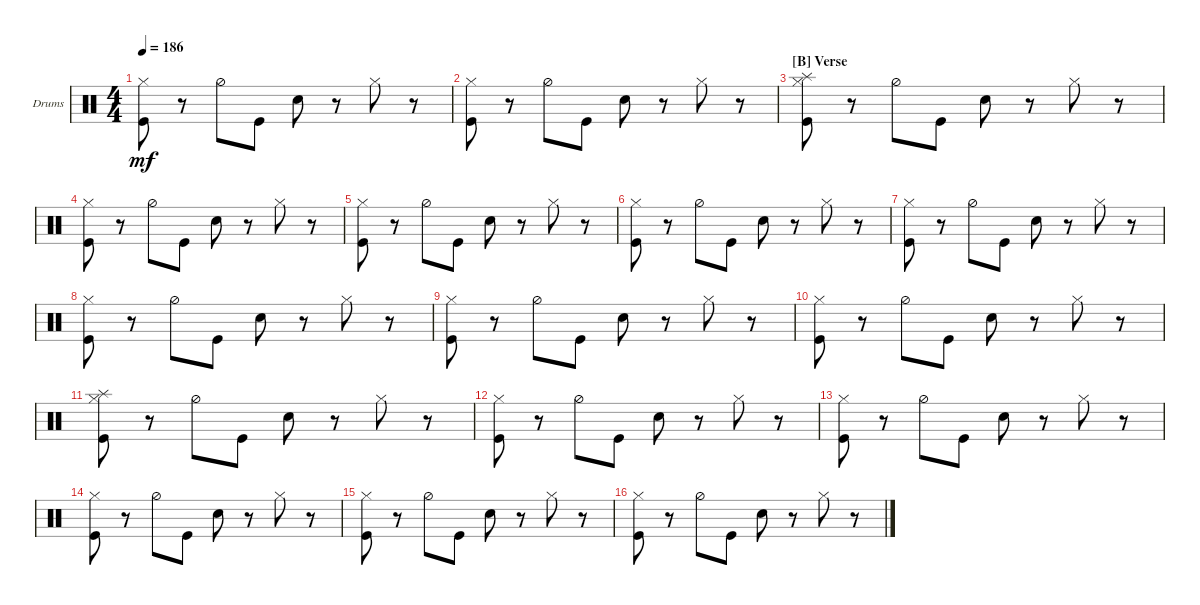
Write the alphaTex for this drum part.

\defaultSystemsLayout 4
\bracketExtendMode groupsimilarinstruments
\firstSystemTrackNameOrientation horizontal
\otherSystemsTrackNameOrientation horizontal
\track ("Drumkit" "Drums") {instrument percussion}
\staff {score}
\articulation defaults
\ts (4 4)
\tempo 186
\clef neutral
\scale
0.333333
\ks c
("Hi-Hat (closed)" "Kick (hit)").8{dy mf} r.8 "Hi-Hat (half)".8 "Kick (hit)".8 "Snare (hit) 2".8 r.8 "Hi-Hat (closed)".8 r.8 |
\scale
0.333333 ("Hi-Hat (closed)" "Kick (hit)").8 r.8 "Hi-Hat (half)".8 "Kick (hit)".8 "Snare (hit) 2".8 r.8 "Hi-Hat (closed)".8 r.8 |
\section ("B" "Verse")
\scale
0.333333 ("Hi-Hat (closed)" "Kick (hit)" "Splash (hit)").8 r.8 "Hi-Hat (half)".8 "Kick (hit)".8 "Snare (hit) 2".8 r.8 "Hi-Hat (closed)".8 r.8 |
\scale
0.333333 ("Hi-Hat (closed)" "Kick (hit)").8 r.8 "Hi-Hat (half)".8 "Kick (hit)".8 "Snare (hit) 2".8 r.8 "Hi-Hat (closed)".8 r.8 |
\scale
0.333333 ("Hi-Hat (closed)" "Kick (hit)").8 r.8 "Hi-Hat (half)".8 "Kick (hit)".8 "Snare (hit) 2".8 r.8 "Hi-Hat (closed)".8 r.8 |
\scale
0.333333 ("Hi-Hat (closed)" "Kick (hit)").8 r.8 "Hi-Hat (half)".8 "Kick (hit)".8 "Snare (hit) 2".8 r.8 "Hi-Hat (closed)".8 r.8 |
\scale
0.333333 ("Hi-Hat (closed)" "Kick (hit)").8 r.8 "Hi-Hat (half)".8 "Kick (hit)".8 "Snare (hit) 2".8 r.8 "Hi-Hat (closed)".8 r.8 |
\scale
0.333333 ("Hi-Hat (closed)" "Kick (hit)").8 r.8 "Hi-Hat (half)".8 "Kick (hit)".8 "Snare (hit) 2".8 r.8 "Hi-Hat (closed)".8 r.8 |
\scale
0.333333 ("Hi-Hat (closed)" "Kick (hit)").8 r.8 "Hi-Hat (half)".8 "Kick (hit)".8 "Snare (hit) 2".8 r.8 "Hi-Hat (closed)".8 r.8 |
\scale
0.333333 ("Hi-Hat (closed)" "Kick (hit)").8 r.8 "Hi-Hat (half)".8 "Kick (hit)".8 "Snare (hit) 2".8 r.8 "Hi-Hat (closed)".8 r.8 |
\scale
0.333333 ("Hi-Hat (closed)" "Kick (hit)" "Splash (hit)").8 r.8 "Hi-Hat (half)".8 "Kick (hit)".8 "Snare (hit) 2".8 r.8 "Hi-Hat (closed)".8 r.8 |
\scale
0.333333 ("Hi-Hat (closed)" "Kick (hit)").8 r.8 "Hi-Hat (half)".8 "Kick (hit)".8 "Snare (hit) 2".8 r.8 "Hi-Hat (closed)".8 r.8 |
\scale
0.333333 ("Hi-Hat (closed)" "Kick (hit)").8 r.8 "Hi-Hat (half)".8 "Kick (hit)".8 "Snare (hit) 2".8 r.8 "Hi-Hat (closed)".8 r.8 |
\scale
0.333333 ("Hi-Hat (closed)" "Kick (hit)").8 r.8 "Hi-Hat (half)".8 "Kick (hit)".8 "Snare (hit) 2".8 r.8 "Hi-Hat (closed)".8 r.8 |
\scale
0.333333 ("Hi-Hat (closed)" "Kick (hit)").8 r.8 "Hi-Hat (half)".8 "Kick (hit)".8 "Snare (hit) 2".8 r.8 "Hi-Hat (closed)".8 r.8 |
\scale
0.333333 ("Hi-Hat (closed)" "Kick (hit)").8 r.8 "Hi-Hat (half)".8 "Kick (hit)".8 "Snare (hit) 2".8 r.8 "Hi-Hat (closed)".8 r.8
